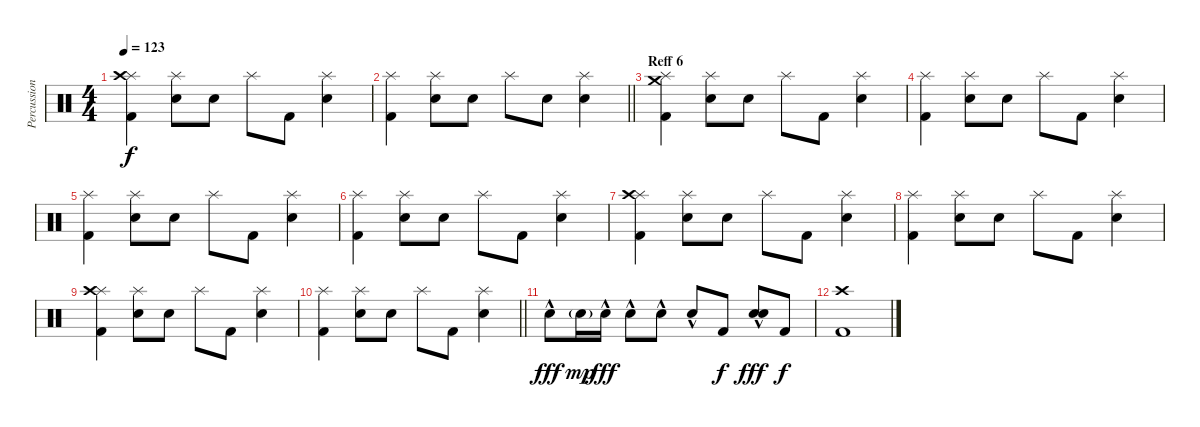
\track ("Percussion 1" "Percussion") {instrument percussion}
\staff {score}
\articulation defaults
\ts (4 4)
\tempo 123
\clef neutral
\ks c
("Splash (hit)" "Crash high (hit)" "Kick (hit) 2").4{dy f} ("Splash (hit)" "Electric Snare (hit)").8 "Electric Snare (hit)".8 "Splash (hit)".8 "Kick (hit) 2".8 ("Splash (hit)" "Electric Snare (hit)").4 |
\barLineRight lightlight
("Splash (hit)" "Kick (hit) 2").4 ("Splash (hit)" "Electric Snare (hit)").8 "Electric Snare (hit)".8 "Splash (hit)".8 "Electric Snare (hit)".8 ("Splash (hit)" "Electric Snare (hit)").4 |
\section ("" "Reff 6")
("Splash (hit)" "Crash medium (hit)" "Kick (hit) 2").4 ("Splash (hit)" "Electric Snare (hit)").8 "Electric Snare (hit)".8 "Splash (hit)".8 "Kick (hit) 2".8 ("Splash (hit)" "Electric Snare (hit)").4 |
("Splash (hit)" "Kick (hit) 2").4 ("Splash (hit)" "Electric Snare (hit)").8 "Electric Snare (hit)".8 "Splash (hit)".8 "Kick (hit) 2".8 ("Splash (hit)" "Electric Snare (hit)").4 |
("Splash (hit)" "Kick (hit) 2").4 ("Splash (hit)" "Electric Snare (hit)").8 "Electric Snare (hit)".8 "Splash (hit)".8 "Kick (hit) 2".8 ("Splash (hit)" "Electric Snare (hit)").4 |
("Splash (hit)" "Kick (hit) 2").4 ("Splash (hit)" "Electric Snare (hit)").8 "Electric Snare (hit)".8 "Splash (hit)".8 "Kick (hit) 2".8 ("Splash (hit)" "Electric Snare (hit)").4 |
("Splash (hit)" "Crash high (hit)" "Kick (hit) 2").4 ("Splash (hit)" "Electric Snare (hit)").8 "Electric Snare (hit)".8 "Splash (hit)".8 "Kick (hit) 2".8 ("Splash (hit)" "Electric Snare (hit)").4 |
("Splash (hit)" "Kick (hit) 2").4 ("Splash (hit)" "Electric Snare (hit)").8 "Electric Snare (hit)".8 "Splash (hit)".8 "Kick (hit) 2".8 ("Splash (hit)" "Electric Snare (hit)").4 |
("Splash (hit)" "Crash high (hit)" "Kick (hit) 2").4 ("Splash (hit)" "Electric Snare (hit)").8 "Electric Snare (hit)".8 "Splash (hit)".8 "Kick (hit) 2".8 ("Splash (hit)" "Electric Snare (hit)").4 |
\barLineRight lightlight
("Splash (hit)" "Kick (hit) 2").4 ("Splash (hit)" "Electric Snare (hit)").8 "Electric Snare (hit)".8 "Splash (hit)".8 "Kick (hit) 2".8 ("Splash (hit)" "Electric Snare (hit)").4 |
"Electric Snare (hit)"{hac}.8{dy fff} "Electric Snare (hit)"{g}.16{dy mp} "Electric Snare (hit)"{hac}.16{dy fff} "Electric Snare (hit)"{hac}.8 "Electric Snare (hit)"{hac}.8 "Electric Snare (hit)"{hac}.8 "Kick (hit) 2".8{dy f} ("Electric Snare (hit)"{hac} "Electric Snare (hit)"{hac}).8{bd 60 dy fff} "Kick (hit) 2".8{dy f} |
("Crash high (hit)" "Kick (hit) 2").1
